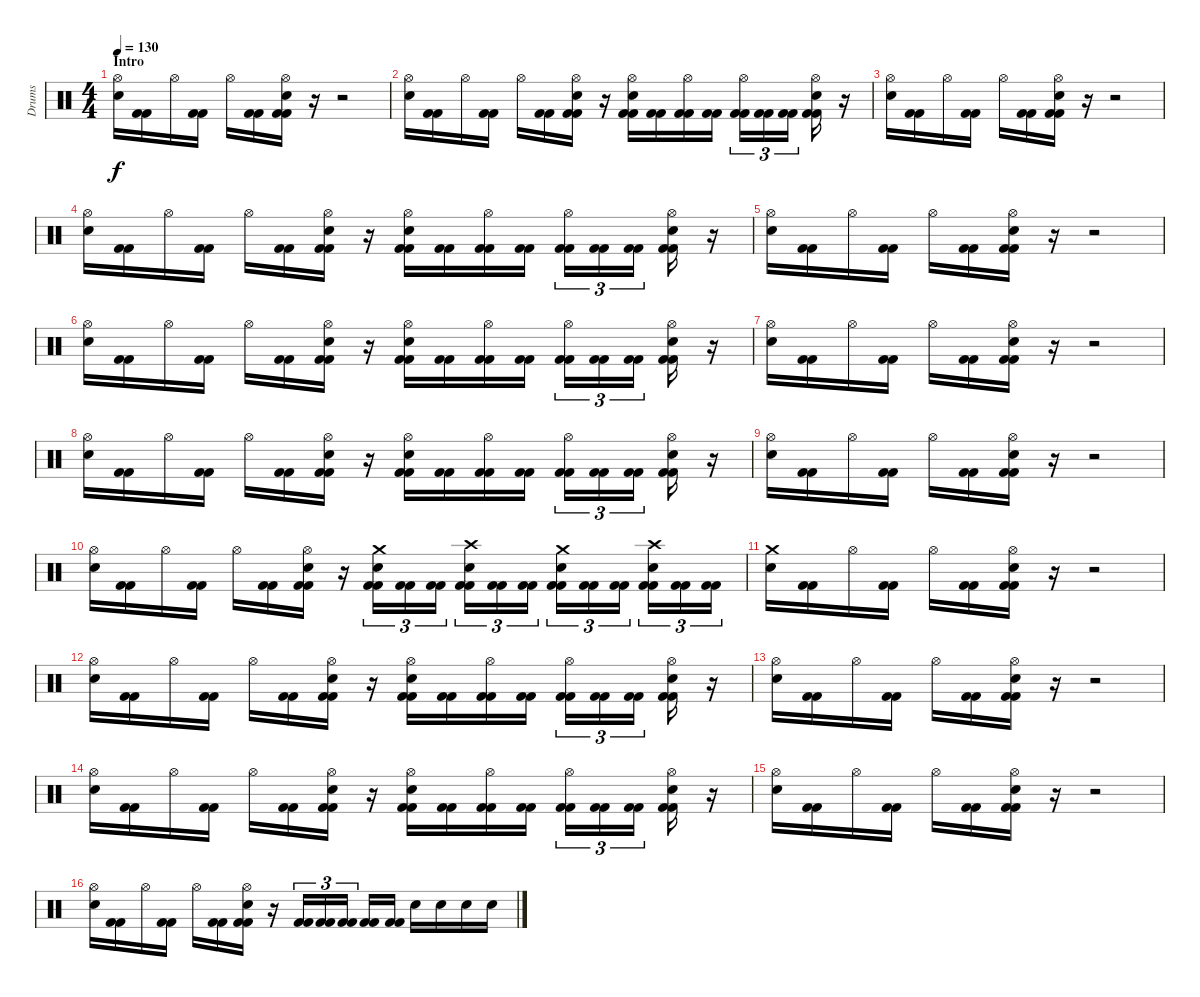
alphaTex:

\track ("Drums" "Drums") {instrument percussion}
\staff {score}
\articulation defaults
\ts (4 4)
\section ("" "Intro ")
\tempo 130
\clef neutral
\ks c
("Hi-Hat (open)" "Electric Snare (hit)").16{dy f} ("Kick (hit) 2" "Kick (hit) 2").16 "Hi-Hat (open)".16 ("Kick (hit) 2" "Kick (hit) 2").16 "Hi-Hat (open)".16 ("Kick (hit) 2" "Kick (hit) 2").16 ("Hi-Hat (open)" "Electric Snare (hit)" "Kick (hit) 2" "Kick (hit) 2").16 r.16 r.2 |
("Hi-Hat (open)" "Electric Snare (hit)").16 ("Kick (hit) 2" "Kick (hit) 2").16 "Hi-Hat (open)".16 ("Kick (hit) 2" "Kick (hit) 2").16 "Hi-Hat (open)".16 ("Kick (hit) 2" "Kick (hit) 2").16 ("Hi-Hat (open)" "Electric Snare (hit)" "Kick (hit) 2" "Kick (hit) 2").16 r.16 ("Hi-Hat (open)" "Electric Snare (hit)" "Kick (hit) 2" "Kick (hit) 2").16 ("Kick (hit) 2" "Kick (hit) 2").16 ("Hi-Hat (open)" "Kick (hit) 2" "Kick (hit) 2").16 ("Kick (hit) 2" "Kick (hit) 2").16 ("Hi-Hat (open)" "Kick (hit) 2" "Kick (hit) 2").16{tu (3 2)} ("Kick (hit) 2" "Kick (hit) 2").16{tu (3 2)} ("Kick (hit) 2" "Kick (hit) 2").16{tu (3 2)} ("Hi-Hat (open)" "Electric Snare (hit)" "Kick (hit) 2" "Kick (hit) 2").16 r.16 |
("Hi-Hat (open)" "Electric Snare (hit)").16 ("Kick (hit) 2" "Kick (hit) 2").16 "Hi-Hat (open)".16 ("Kick (hit) 2" "Kick (hit) 2").16 "Hi-Hat (open)".16 ("Kick (hit) 2" "Kick (hit) 2").16 ("Hi-Hat (open)" "Electric Snare (hit)" "Kick (hit) 2" "Kick (hit) 2").16 r.16 r.2 |
("Hi-Hat (open)" "Electric Snare (hit)").16 ("Kick (hit) 2" "Kick (hit) 2").16 "Hi-Hat (open)".16 ("Kick (hit) 2" "Kick (hit) 2").16 "Hi-Hat (open)".16 ("Kick (hit) 2" "Kick (hit) 2").16 ("Hi-Hat (open)" "Electric Snare (hit)" "Kick (hit) 2" "Kick (hit) 2").16 r.16 ("Hi-Hat (open)" "Electric Snare (hit)" "Kick (hit) 2" "Kick (hit) 2").16 ("Kick (hit) 2" "Kick (hit) 2").16 ("Hi-Hat (open)" "Kick (hit) 2" "Kick (hit) 2").16 ("Kick (hit) 2" "Kick (hit) 2").16 ("Hi-Hat (open)" "Kick (hit) 2" "Kick (hit) 2").16{tu (3 2)} ("Kick (hit) 2" "Kick (hit) 2").16{tu (3 2)} ("Kick (hit) 2" "Kick (hit) 2").16{tu (3 2)} ("Hi-Hat (open)" "Electric Snare (hit)" "Kick (hit) 2" "Kick (hit) 2").16 r.16 |
("Hi-Hat (open)" "Electric Snare (hit)").16 ("Kick (hit) 2" "Kick (hit) 2").16 "Hi-Hat (open)".16 ("Kick (hit) 2" "Kick (hit) 2").16 "Hi-Hat (open)".16 ("Kick (hit) 2" "Kick (hit) 2").16 ("Hi-Hat (open)" "Electric Snare (hit)" "Kick (hit) 2" "Kick (hit) 2").16 r.16 r.2 |
("Hi-Hat (open)" "Electric Snare (hit)").16 ("Kick (hit) 2" "Kick (hit) 2").16 "Hi-Hat (open)".16 ("Kick (hit) 2" "Kick (hit) 2").16 "Hi-Hat (open)".16 ("Kick (hit) 2" "Kick (hit) 2").16 ("Hi-Hat (open)" "Electric Snare (hit)" "Kick (hit) 2" "Kick (hit) 2").16 r.16 ("Hi-Hat (open)" "Electric Snare (hit)" "Kick (hit) 2" "Kick (hit) 2").16 ("Kick (hit) 2" "Kick (hit) 2").16 ("Hi-Hat (open)" "Kick (hit) 2" "Kick (hit) 2").16 ("Kick (hit) 2" "Kick (hit) 2").16 ("Hi-Hat (open)" "Kick (hit) 2" "Kick (hit) 2").16{tu (3 2)} ("Kick (hit) 2" "Kick (hit) 2").16{tu (3 2)} ("Kick (hit) 2" "Kick (hit) 2").16{tu (3 2)} ("Hi-Hat (open)" "Electric Snare (hit)" "Kick (hit) 2" "Kick (hit) 2").16 r.16 |
("Hi-Hat (open)" "Electric Snare (hit)").16 ("Kick (hit) 2" "Kick (hit) 2").16 "Hi-Hat (open)".16 ("Kick (hit) 2" "Kick (hit) 2").16 "Hi-Hat (open)".16 ("Kick (hit) 2" "Kick (hit) 2").16 ("Hi-Hat (open)" "Electric Snare (hit)" "Kick (hit) 2" "Kick (hit) 2").16 r.16 r.2 |
("Hi-Hat (open)" "Electric Snare (hit)").16 ("Kick (hit) 2" "Kick (hit) 2").16 "Hi-Hat (open)".16 ("Kick (hit) 2" "Kick (hit) 2").16 "Hi-Hat (open)".16 ("Kick (hit) 2" "Kick (hit) 2").16 ("Hi-Hat (open)" "Electric Snare (hit)" "Kick (hit) 2" "Kick (hit) 2").16 r.16 ("Hi-Hat (open)" "Electric Snare (hit)" "Kick (hit) 2" "Kick (hit) 2").16 ("Kick (hit) 2" "Kick (hit) 2").16 ("Hi-Hat (open)" "Kick (hit) 2" "Kick (hit) 2").16 ("Kick (hit) 2" "Kick (hit) 2").16 ("Hi-Hat (open)" "Kick (hit) 2" "Kick (hit) 2").16{tu (3 2)} ("Kick (hit) 2" "Kick (hit) 2").16{tu (3 2)} ("Kick (hit) 2" "Kick (hit) 2").16{tu (3 2)} ("Hi-Hat (open)" "Electric Snare (hit)" "Kick (hit) 2" "Kick (hit) 2").16 r.16 |
\section ("" "")
("Hi-Hat (open)" "Electric Snare (hit)").16 ("Kick (hit) 2" "Kick (hit) 2").16 "Hi-Hat (open)".16 ("Kick (hit) 2" "Kick (hit) 2").16 "Hi-Hat (open)".16 ("Kick (hit) 2" "Kick (hit) 2").16 ("Hi-Hat (open)" "Electric Snare (hit)" "Kick (hit) 2" "Kick (hit) 2").16 r.16 r.2 |
("Hi-Hat (open)" "Electric Snare (hit)").16 ("Kick (hit) 2" "Kick (hit) 2").16 "Hi-Hat (open)".16 ("Kick (hit) 2" "Kick (hit) 2").16 "Hi-Hat (open)".16 ("Kick (hit) 2" "Kick (hit) 2").16 ("Hi-Hat (open)" "Electric Snare (hit)" "Kick (hit) 2" "Kick (hit) 2").16 r.16 ("Crash medium (hit)" "Electric Snare (hit)" "Kick (hit) 2" "Kick (hit) 2").16{tu (3 2)} ("Kick (hit) 2" "Kick (hit) 2").16{tu (3 2)} ("Kick (hit) 2" "Kick (hit) 2").16{tu (3 2)} ("Crash high (hit)" "Electric Snare (hit)" "Kick (hit) 2" "Kick (hit) 2").16{tu (3 2)} ("Kick (hit) 2" "Kick (hit) 2").16{tu (3 2)} ("Kick (hit) 2" "Kick (hit) 2").16{tu (3 2)} ("Crash medium (hit)" "Electric Snare (hit)" "Kick (hit) 2" "Kick (hit) 2").16{tu (3 2)} ("Kick (hit) 2" "Kick (hit) 2").16{tu (3 2)} ("Kick (hit) 2" "Kick (hit) 2").16{tu (3 2)} ("Crash high (hit)" "Electric Snare (hit)" "Kick (hit) 2" "Kick (hit) 2").16{tu (3 2)} ("Kick (hit) 2" "Kick (hit) 2").16{tu (3 2)} ("Kick (hit) 2" "Kick (hit) 2").16{tu (3 2)} |
("Crash medium (hit)" "Electric Snare (hit)").16 ("Kick (hit) 2" "Kick (hit) 2").16 "Hi-Hat (open)".16 ("Kick (hit) 2" "Kick (hit) 2").16 "Hi-Hat (open)".16 ("Kick (hit) 2" "Kick (hit) 2").16 ("Hi-Hat (open)" "Electric Snare (hit)" "Kick (hit) 2" "Kick (hit) 2").16 r.16 r.2 |
("Hi-Hat (open)" "Electric Snare (hit)").16 ("Kick (hit) 2" "Kick (hit) 2").16 "Hi-Hat (open)".16 ("Kick (hit) 2" "Kick (hit) 2").16 "Hi-Hat (open)".16 ("Kick (hit) 2" "Kick (hit) 2").16 ("Hi-Hat (open)" "Electric Snare (hit)" "Kick (hit) 2" "Kick (hit) 2").16 r.16 ("Hi-Hat (open)" "Electric Snare (hit)" "Kick (hit) 2" "Kick (hit) 2").16 ("Kick (hit) 2" "Kick (hit) 2").16 ("Hi-Hat (open)" "Kick (hit) 2" "Kick (hit) 2").16 ("Kick (hit) 2" "Kick (hit) 2").16 ("Hi-Hat (open)" "Kick (hit) 2" "Kick (hit) 2").16{tu (3 2)} ("Kick (hit) 2" "Kick (hit) 2").16{tu (3 2)} ("Kick (hit) 2" "Kick (hit) 2").16{tu (3 2)} ("Hi-Hat (open)" "Electric Snare (hit)" "Kick (hit) 2" "Kick (hit) 2").16 r.16 |
("Hi-Hat (open)" "Electric Snare (hit)").16 ("Kick (hit) 2" "Kick (hit) 2").16 "Hi-Hat (open)".16 ("Kick (hit) 2" "Kick (hit) 2").16 "Hi-Hat (open)".16 ("Kick (hit) 2" "Kick (hit) 2").16 ("Hi-Hat (open)" "Electric Snare (hit)" "Kick (hit) 2" "Kick (hit) 2").16 r.16 r.2 |
("Hi-Hat (open)" "Electric Snare (hit)").16 ("Kick (hit) 2" "Kick (hit) 2").16 "Hi-Hat (open)".16 ("Kick (hit) 2" "Kick (hit) 2").16 "Hi-Hat (open)".16 ("Kick (hit) 2" "Kick (hit) 2").16 ("Hi-Hat (open)" "Electric Snare (hit)" "Kick (hit) 2" "Kick (hit) 2").16 r.16 ("Hi-Hat (open)" "Electric Snare (hit)" "Kick (hit) 2" "Kick (hit) 2").16 ("Kick (hit) 2" "Kick (hit) 2").16 ("Hi-Hat (open)" "Kick (hit) 2" "Kick (hit) 2").16 ("Kick (hit) 2" "Kick (hit) 2").16 ("Hi-Hat (open)" "Kick (hit) 2" "Kick (hit) 2").16{tu (3 2)} ("Kick (hit) 2" "Kick (hit) 2").16{tu (3 2)} ("Kick (hit) 2" "Kick (hit) 2").16{tu (3 2)} ("Hi-Hat (open)" "Electric Snare (hit)" "Kick (hit) 2" "Kick (hit) 2").16 r.16 |
("Hi-Hat (open)" "Electric Snare (hit)").16 ("Kick (hit) 2" "Kick (hit) 2").16 "Hi-Hat (open)".16 ("Kick (hit) 2" "Kick (hit) 2").16 "Hi-Hat (open)".16 ("Kick (hit) 2" "Kick (hit) 2").16 ("Hi-Hat (open)" "Electric Snare (hit)" "Kick (hit) 2" "Kick (hit) 2").16 r.16 r.2 |
("Hi-Hat (open)" "Electric Snare (hit)").16 ("Kick (hit) 2" "Kick (hit) 2").16 "Hi-Hat (open)".16 ("Kick (hit) 2" "Kick (hit) 2").16 "Hi-Hat (open)".16 ("Kick (hit) 2" "Kick (hit) 2").16 ("Hi-Hat (open)" "Electric Snare (hit)" "Kick (hit) 2" "Kick (hit) 2").16 r.16 ("Kick (hit) 2" "Kick (hit) 2").16{tu (3 2)} ("Kick (hit) 2" "Kick (hit) 2").16{tu (3 2)} ("Kick (hit) 2" "Kick (hit) 2").16{tu (3 2)} ("Kick (hit) 2" "Kick (hit) 2").16 ("Kick (hit) 2" "Kick (hit) 2").16 "Electric Snare (hit)".16 "Electric Snare (hit)".16 "Electric Snare (hit)".16 "Electric Snare (hit)".16
